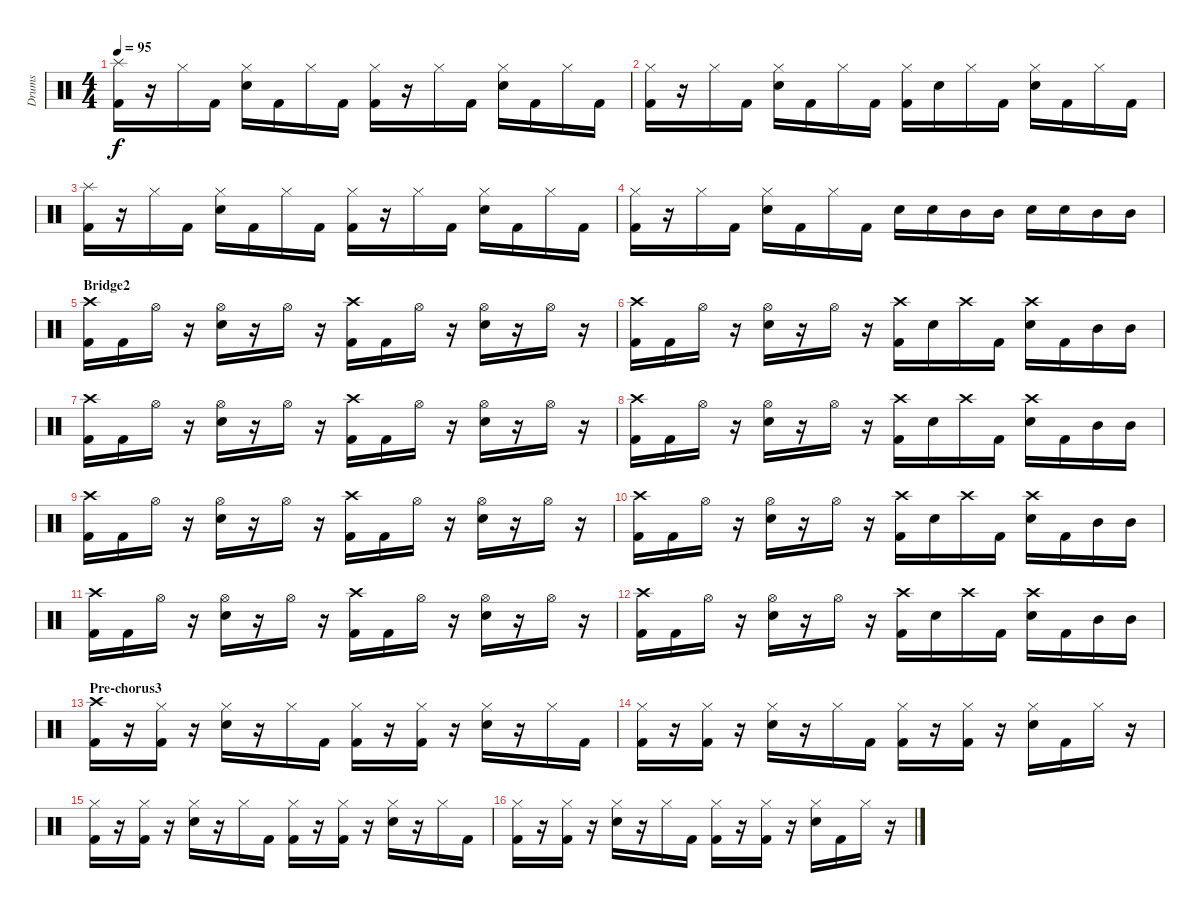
\track ("Drums" "Drums") {instrument percussion}
\staff {score}
\articulation defaults
\ts (4 4)
\tempo 95
\clef neutral
\ks c
("Splash (hit)" "Kick (hit) 2").16{dy f} r.16 "Hi-Hat (closed)".16 "Kick (hit) 2".16 ("Hi-Hat (closed)" "Snare (hit) 2").16 "Kick (hit) 2".16 "Hi-Hat (closed)".16 "Kick (hit) 2".16 ("Hi-Hat (closed)" "Kick (hit) 2").16 r.16 "Hi-Hat (closed)".16 "Kick (hit) 2".16 ("Hi-Hat (closed)" "Snare (hit) 2").16 "Kick (hit) 2".16 "Hi-Hat (closed)".16 "Kick (hit) 2".16 |
("Hi-Hat (closed)" "Kick (hit) 2").16 r.16 "Hi-Hat (closed)".16 "Kick (hit) 2".16 ("Hi-Hat (closed)" "Snare (hit) 2").16 "Kick (hit) 2".16 "Hi-Hat (closed)".16 "Kick (hit) 2".16 ("Hi-Hat (closed)" "Kick (hit) 2").16 "Snare (hit) 2".16 "Hi-Hat (closed)".16 "Kick (hit) 2".16 ("Hi-Hat (closed)" "Snare (hit) 2").16 "Kick (hit) 2".16 "Hi-Hat (closed)".16 "Kick (hit) 2".16 |
("Splash (hit)" "Kick (hit) 2").16 r.16 "Hi-Hat (closed)".16 "Kick (hit) 2".16 ("Hi-Hat (closed)" "Snare (hit) 2").16 "Kick (hit) 2".16 "Hi-Hat (closed)".16 "Kick (hit) 2".16 ("Hi-Hat (closed)" "Kick (hit) 2").16 r.16 "Hi-Hat (closed)".16 "Kick (hit) 2".16 ("Hi-Hat (closed)" "Snare (hit) 2").16 "Kick (hit) 2".16 "Hi-Hat (closed)".16 "Kick (hit) 2".16 |
("Hi-Hat (closed)" "Kick (hit) 2").16 r.16 "Hi-Hat (closed)".16 "Kick (hit) 2".16 ("Hi-Hat (closed)" "Snare (hit) 2").16 "Kick (hit) 2".16 "Hi-Hat (closed)".16 "Kick (hit) 2".16 "Snare (hit) 2".16 "Snare (hit) 2".16 "Mid Tom (hit)".16 "Mid Tom (hit)".16 "Snare (hit) 2".16 "Snare (hit) 2".16 "Mid Tom (hit)".16 "Mid Tom (hit)".16 |
\section ("" "Bridge2")
("Crash high (hit)" "Kick (hit) 2").16 "Kick (hit) 2".16 "Hi-Hat (open)".16 r.16 ("Hi-Hat (open)" "Snare (hit) 2").16 r.16 "Hi-Hat (open)".16 r.16 ("Crash high (hit)" "Kick (hit) 2").16 "Kick (hit) 2".16 "Hi-Hat (open)".16 r.16 ("Hi-Hat (open)" "Snare (hit) 2").16 r.16 "Hi-Hat (open)".16 r.16 |
("Crash high (hit)" "Kick (hit) 2").16 "Kick (hit) 2".16 "Hi-Hat (open)".16 r.16 ("Hi-Hat (open)" "Snare (hit) 2").16 r.16 "Hi-Hat (open)".16 r.16 ("Crash high (hit)" "Kick (hit) 2").16 "Snare (hit) 2".16 "Crash high (hit)".16 "Kick (hit) 2".16 ("Crash high (hit)" "Snare (hit) 2").16 "Kick (hit) 2".16 "Mid Tom (hit)".16 "Mid Tom (hit)".16 |
("Crash high (hit)" "Kick (hit) 2").16 "Kick (hit) 2".16 "Hi-Hat (open)".16 r.16 ("Hi-Hat (open)" "Snare (hit) 2").16 r.16 "Hi-Hat (open)".16 r.16 ("Crash high (hit)" "Kick (hit) 2").16 "Kick (hit) 2".16 "Hi-Hat (open)".16 r.16 ("Hi-Hat (open)" "Snare (hit) 2").16 r.16 "Hi-Hat (open)".16 r.16 |
("Crash high (hit)" "Kick (hit) 2").16 "Kick (hit) 2".16 "Hi-Hat (open)".16 r.16 ("Hi-Hat (open)" "Snare (hit) 2").16 r.16 "Hi-Hat (open)".16 r.16 ("Crash high (hit)" "Kick (hit) 2").16 "Snare (hit) 2".16 "Crash high (hit)".16 "Kick (hit) 2".16 ("Crash high (hit)" "Snare (hit) 2").16 "Kick (hit) 2".16 "Mid Tom (hit)".16 "Mid Tom (hit)".16 |
("Crash high (hit)" "Kick (hit) 2").16 "Kick (hit) 2".16 "Hi-Hat (open)".16 r.16 ("Hi-Hat (open)" "Snare (hit) 2").16 r.16 "Hi-Hat (open)".16 r.16 ("Crash high (hit)" "Kick (hit) 2").16 "Kick (hit) 2".16 "Hi-Hat (open)".16 r.16 ("Hi-Hat (open)" "Snare (hit) 2").16 r.16 "Hi-Hat (open)".16 r.16 |
("Crash high (hit)" "Kick (hit) 2").16 "Kick (hit) 2".16 "Hi-Hat (open)".16 r.16 ("Hi-Hat (open)" "Snare (hit) 2").16 r.16 "Hi-Hat (open)".16 r.16 ("Crash high (hit)" "Kick (hit) 2").16 "Snare (hit) 2".16 "Crash high (hit)".16 "Kick (hit) 2".16 ("Crash high (hit)" "Snare (hit) 2").16 "Kick (hit) 2".16 "Mid Tom (hit)".16 "Mid Tom (hit)".16 |
("Crash high (hit)" "Kick (hit) 2").16 "Kick (hit) 2".16 "Hi-Hat (open)".16 r.16 ("Hi-Hat (open)" "Snare (hit) 2").16 r.16 "Hi-Hat (open)".16 r.16 ("Crash high (hit)" "Kick (hit) 2").16 "Kick (hit) 2".16 "Hi-Hat (open)".16 r.16 ("Hi-Hat (open)" "Snare (hit) 2").16 r.16 "Hi-Hat (open)".16 r.16 |
("Crash high (hit)" "Kick (hit) 2").16 "Kick (hit) 2".16 "Hi-Hat (open)".16 r.16 ("Hi-Hat (open)" "Snare (hit) 2").16 r.16 "Hi-Hat (open)".16 r.16 ("Crash high (hit)" "Kick (hit) 2").16 "Snare (hit) 2".16 "Crash high (hit)".16 "Kick (hit) 2".16 ("Crash high (hit)" "Snare (hit) 2").16 "Kick (hit) 2".16 "Mid Tom (hit)".16 "Mid Tom (hit)".16 |
\section ("" "Pre-chorus3")
("Crash high (hit)" "Kick (hit) 2").16 r.16 ("Hi-Hat (closed)" "Kick (hit) 2").16 r.16 ("Hi-Hat (closed)" "Snare (hit) 2").16 r.16 "Hi-Hat (closed)".16 "Kick (hit) 2".16 ("Hi-Hat (closed)" "Kick (hit) 2").16 r.16 ("Hi-Hat (closed)" "Kick (hit) 2").16 r.16 ("Hi-Hat (closed)" "Snare (hit) 2").16 r.16 "Hi-Hat (closed)".16 "Kick (hit) 2".16 |
("Hi-Hat (closed)" "Kick (hit) 2").16 r.16 ("Hi-Hat (closed)" "Kick (hit) 2").16 r.16 ("Hi-Hat (closed)" "Snare (hit) 2").16 r.16 "Hi-Hat (closed)".16 "Kick (hit) 2".16 ("Hi-Hat (closed)" "Kick (hit) 2").16 r.16 ("Hi-Hat (closed)" "Kick (hit) 2").16 r.16 ("Hi-Hat (closed)" "Snare (hit) 2").16 "Kick (hit) 2".16 "Hi-Hat (closed)".16 r.16 |
("Hi-Hat (closed)" "Kick (hit) 2").16 r.16 ("Hi-Hat (closed)" "Kick (hit) 2").16 r.16 ("Hi-Hat (closed)" "Snare (hit) 2").16 r.16 "Hi-Hat (closed)".16 "Kick (hit) 2".16 ("Hi-Hat (closed)" "Kick (hit) 2").16 r.16 ("Hi-Hat (closed)" "Kick (hit) 2").16 r.16 ("Hi-Hat (closed)" "Snare (hit) 2").16 r.16 "Hi-Hat (closed)".16 "Kick (hit) 2".16 |
("Hi-Hat (closed)" "Kick (hit) 2").16 r.16 ("Hi-Hat (closed)" "Kick (hit) 2").16 r.16 ("Hi-Hat (closed)" "Snare (hit) 2").16 r.16 "Hi-Hat (closed)".16 "Kick (hit) 2".16 ("Hi-Hat (closed)" "Kick (hit) 2").16 r.16 ("Hi-Hat (closed)" "Kick (hit) 2").16 r.16 ("Hi-Hat (closed)" "Snare (hit) 2").16 "Kick (hit) 2".16 "Hi-Hat (closed)".16 r.16
